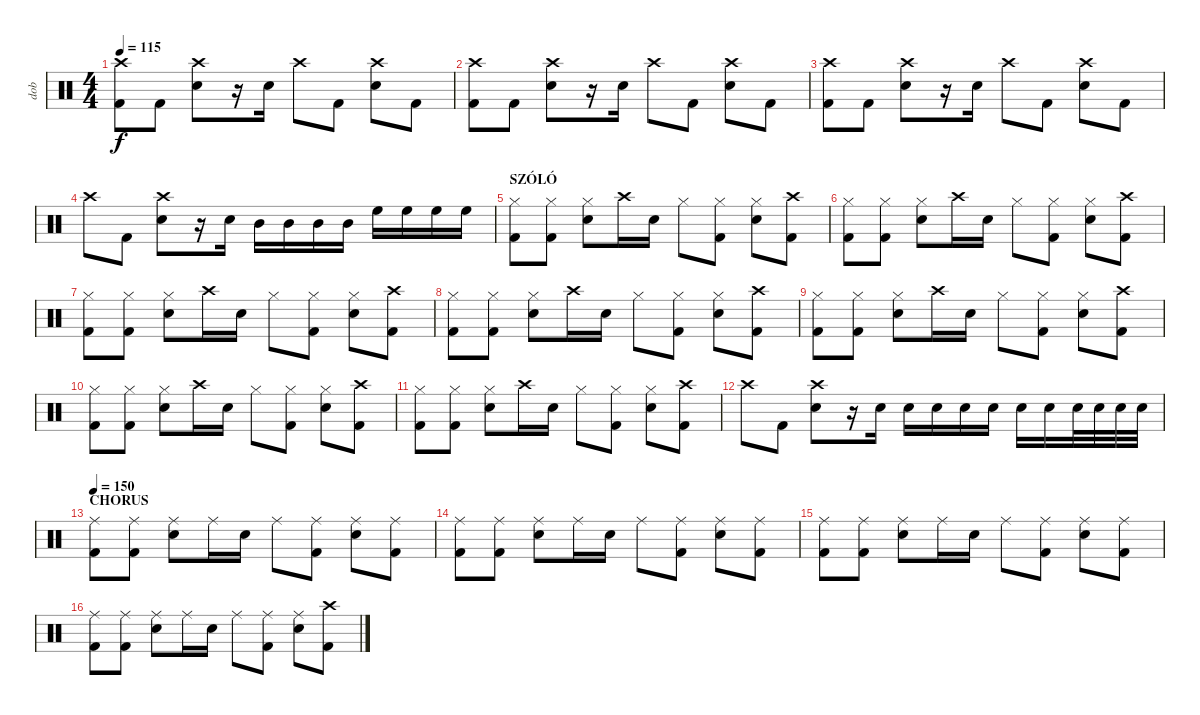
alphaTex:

\track ("dob" "dob") {instrument percussion}
\staff {score}
\articulation defaults
\ts (4 4)
\tempo 115
\clef neutral
\ks c
("Crash high (hit)" "Kick (hit) 2").8{dy f} "Kick (hit) 2".8 ("Crash high (hit)" "Snare (hit) 2").8 r.16 "Snare (hit) 2".16 "Crash high (hit)".8 "Kick (hit) 2".8 ("Crash high (hit)" "Snare (hit) 2").8 "Kick (hit) 2".8 |
("Crash high (hit)" "Kick (hit) 2").8 "Kick (hit) 2".8 ("Crash high (hit)" "Snare (hit) 2").8 r.16 "Snare (hit) 2".16 "Crash high (hit)".8 "Kick (hit) 2".8 ("Crash high (hit)" "Snare (hit) 2").8 "Kick (hit) 2".8 |
("Crash high (hit)" "Kick (hit) 2").8 "Kick (hit) 2".8 ("Crash high (hit)" "Snare (hit) 2").8 r.16 "Snare (hit) 2".16 "Crash high (hit)".8 "Kick (hit) 2".8 ("Crash high (hit)" "Snare (hit) 2").8 "Kick (hit) 2".8 |
"Crash high (hit)".8 "Kick (hit) 2".8 ("Crash high (hit)" "Snare (hit) 2").8 r.16 "Snare (hit) 2".16 "Mid Tom (hit)".16 "Mid Tom (hit)".16 "Mid Tom (hit)".16 "Mid Tom (hit)".16 "High Floor Tom (hit)".16 "High Floor Tom (hit)".16 "High Floor Tom (hit)".16 "High Floor Tom (hit)".16 |
\section ("" "SZÓLÓ")
("Hi-Hat (closed)" "Kick (hit) 2").8 ("Hi-Hat (closed)" "Kick (hit) 2").8 ("Hi-Hat (closed)" "Snare (hit) 2").8 "Crash high (hit)".16 "Snare (hit) 2".16 "Hi-Hat (closed)".8 ("Hi-Hat (closed)" "Kick (hit) 2").8 ("Hi-Hat (closed)" "Snare (hit) 2").8 ("Crash high (hit)" "Kick (hit) 2").8 |
("Hi-Hat (closed)" "Kick (hit) 2").8 ("Hi-Hat (closed)" "Kick (hit) 2").8 ("Hi-Hat (closed)" "Snare (hit) 2").8 "Crash high (hit)".16 "Snare (hit) 2".16 "Hi-Hat (closed)".8 ("Hi-Hat (closed)" "Kick (hit) 2").8 ("Hi-Hat (closed)" "Snare (hit) 2").8 ("Crash high (hit)" "Kick (hit) 2").8 |
("Hi-Hat (closed)" "Kick (hit) 2").8 ("Hi-Hat (closed)" "Kick (hit) 2").8 ("Hi-Hat (closed)" "Snare (hit) 2").8 "Crash high (hit)".16 "Snare (hit) 2".16 "Hi-Hat (closed)".8 ("Hi-Hat (closed)" "Kick (hit) 2").8 ("Hi-Hat (closed)" "Snare (hit) 2").8 ("Crash high (hit)" "Kick (hit) 2").8 |
("Hi-Hat (closed)" "Kick (hit) 2").8 ("Hi-Hat (closed)" "Kick (hit) 2").8 ("Hi-Hat (closed)" "Snare (hit) 2").8 "Crash high (hit)".16 "Snare (hit) 2".16 "Hi-Hat (closed)".8 ("Hi-Hat (closed)" "Kick (hit) 2").8 ("Hi-Hat (closed)" "Snare (hit) 2").8 ("Crash high (hit)" "Kick (hit) 2").8 |
("Hi-Hat (closed)" "Kick (hit) 2").8 ("Hi-Hat (closed)" "Kick (hit) 2").8 ("Hi-Hat (closed)" "Snare (hit) 2").8 "Crash high (hit)".16 "Snare (hit) 2".16 "Hi-Hat (closed)".8 ("Hi-Hat (closed)" "Kick (hit) 2").8 ("Hi-Hat (closed)" "Snare (hit) 2").8 ("Crash high (hit)" "Kick (hit) 2").8 |
("Hi-Hat (closed)" "Kick (hit) 2").8 ("Hi-Hat (closed)" "Kick (hit) 2").8 ("Hi-Hat (closed)" "Snare (hit) 2").8 "Crash high (hit)".16 "Snare (hit) 2".16 "Hi-Hat (closed)".8 ("Hi-Hat (closed)" "Kick (hit) 2").8 ("Hi-Hat (closed)" "Snare (hit) 2").8 ("Crash high (hit)" "Kick (hit) 2").8 |
("Hi-Hat (closed)" "Kick (hit) 2").8 ("Hi-Hat (closed)" "Kick (hit) 2").8 ("Hi-Hat (closed)" "Snare (hit) 2").8 "Crash high (hit)".16 "Snare (hit) 2".16 "Hi-Hat (closed)".8 ("Hi-Hat (closed)" "Kick (hit) 2").8 ("Hi-Hat (closed)" "Snare (hit) 2").8 ("Crash high (hit)" "Kick (hit) 2").8 |
"Crash high (hit)".8 "Kick (hit) 2".8 ("Crash high (hit)" "Snare (hit) 2").8 r.16 "Snare (hit) 2".16 "Snare (hit) 2".16 "Snare (hit) 2".16 "Snare (hit) 2".16 "Snare (hit) 2".16 "Snare (hit) 2".16 "Snare (hit) 2".16 "Snare (hit) 2".32 "Snare (hit) 2".32 "Snare (hit) 2".32 "Snare (hit) 2".32 |
\section ("" "CHORUS")
\tempo 150
("Ride (middle)" "Kick (hit) 2").8 ("Ride (middle)" "Kick (hit) 2").8 ("Ride (middle)" "Snare (hit) 2").8 "Ride (middle)".16 "Snare (hit) 2".16 "Ride (middle)".8 ("Ride (middle)" "Kick (hit) 2").8 ("Ride (middle)" "Snare (hit) 2").8 ("Ride (middle)" "Kick (hit) 2").8 |
("Ride (middle)" "Kick (hit) 2").8 ("Ride (middle)" "Kick (hit) 2").8 ("Ride (middle)" "Snare (hit) 2").8 "Ride (middle)".16 "Snare (hit) 2".16 "Ride (middle)".8 ("Ride (middle)" "Kick (hit) 2").8 ("Ride (middle)" "Snare (hit) 2").8 ("Ride (middle)" "Kick (hit) 2").8 |
("Ride (middle)" "Kick (hit) 2").8 ("Ride (middle)" "Kick (hit) 2").8 ("Ride (middle)" "Snare (hit) 2").8 "Ride (middle)".16 "Snare (hit) 2".16 "Ride (middle)".8 ("Ride (middle)" "Kick (hit) 2").8 ("Ride (middle)" "Snare (hit) 2").8 ("Ride (middle)" "Kick (hit) 2").8 |
("Ride (middle)" "Kick (hit) 2").8 ("Ride (middle)" "Kick (hit) 2").8 ("Ride (middle)" "Snare (hit) 2").8 "Ride (middle)".16 "Snare (hit) 2".16 "Ride (middle)".8 ("Ride (middle)" "Kick (hit) 2").8 ("Ride (middle)" "Snare (hit) 2").8 ("Crash high (hit)" "Kick (hit) 2").8
